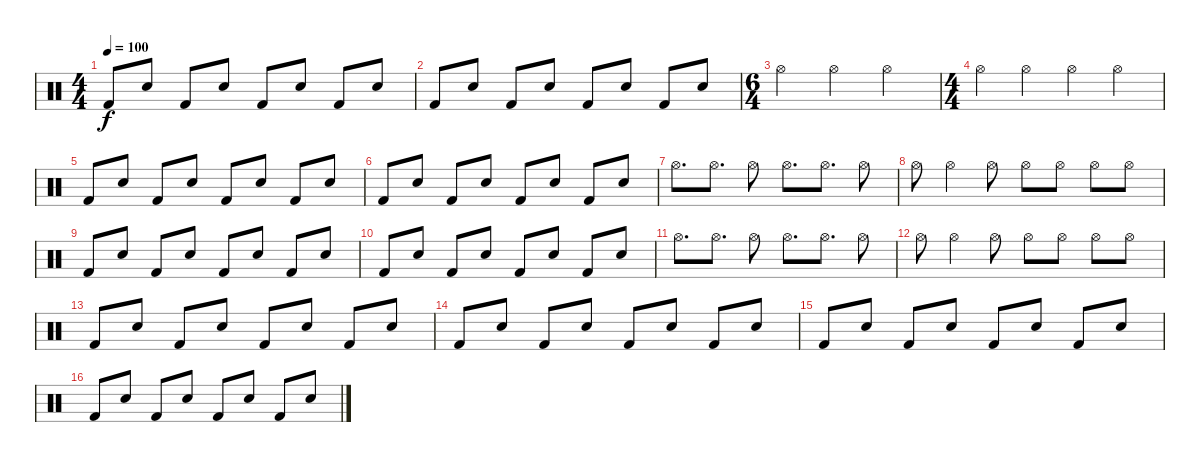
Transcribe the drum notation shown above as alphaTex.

\track "" {instrument percussion}
\staff {score}
\articulation defaults
\ts (4 4)
\tempo 100
\clef neutral
\ks c "Kick (hit) 2".8{dy f} "Electric Snare (hit)".8 "Kick (hit) 2".8 "Electric Snare (hit)".8 "Kick (hit) 2".8 "Electric Snare (hit)".8 "Kick (hit) 2".8 "Electric Snare (hit)".8
|
"Kick (hit) 2".8 "Electric Snare (hit)".8 "Kick (hit) 2".8 "Electric Snare (hit)".8 "Kick (hit) 2".8 "Electric Snare (hit)".8 "Kick (hit) 2".8 "Electric Snare (hit)".8 |
\ts (6 4)
"Hi-Hat (open)".2 "Hi-Hat (open)".2 "Hi-Hat (open)".2 |
\ts (4 4)
"Hi-Hat (open)".4 "Hi-Hat (open)".4 "Hi-Hat (open)".4 "Hi-Hat (open)".4 |
"Kick (hit) 2".8 "Electric Snare (hit)".8 "Kick (hit) 2".8 "Electric Snare (hit)".8 "Kick (hit) 2".8 "Electric Snare (hit)".8 "Kick (hit) 2".8 "Electric Snare (hit)".8 |
"Kick (hit) 2".8 "Electric Snare (hit)".8 "Kick (hit) 2".8 "Electric Snare (hit)".8 "Kick (hit) 2".8 "Electric Snare (hit)".8 "Kick (hit) 2".8 "Electric Snare (hit)".8 |
"Hi-Hat (open)".8{d} "Hi-Hat (open)".8{d} "Hi-Hat (open)".8 "Hi-Hat (open)".8{d} "Hi-Hat (open)".8{d} "Hi-Hat (open)".8 |
"Hi-Hat (open)".8 "Hi-Hat (open)".4 "Hi-Hat (open)".8 "Hi-Hat (open)".8 "Hi-Hat (open)".8 "Hi-Hat (open)".8 "Hi-Hat (open)".8 |
"Kick (hit) 2".8 "Electric Snare (hit)".8 "Kick (hit) 2".8 "Electric Snare (hit)".8 "Kick (hit) 2".8 "Electric Snare (hit)".8 "Kick (hit) 2".8 "Electric Snare (hit)".8 |
"Kick (hit) 2".8 "Electric Snare (hit)".8 "Kick (hit) 2".8 "Electric Snare (hit)".8 "Kick (hit) 2".8 "Electric Snare (hit)".8 "Kick (hit) 2".8 "Electric Snare (hit)".8 |
"Hi-Hat (open)".8{d} "Hi-Hat (open)".8{d} "Hi-Hat (open)".8 "Hi-Hat (open)".8{d} "Hi-Hat (open)".8{d} "Hi-Hat (open)".8 |
"Hi-Hat (open)".8 "Hi-Hat (open)".4 "Hi-Hat (open)".8 "Hi-Hat (open)".8 "Hi-Hat (open)".8 "Hi-Hat (open)".8 "Hi-Hat (open)".8 |
"Kick (hit) 2".8 "Electric Snare (hit)".8 "Kick (hit) 2".8 "Electric Snare (hit)".8 "Kick (hit) 2".8 "Electric Snare (hit)".8 "Kick (hit) 2".8 "Electric Snare (hit)".8 |
"Kick (hit) 2".8 "Electric Snare (hit)".8 "Kick (hit) 2".8 "Electric Snare (hit)".8 "Kick (hit) 2".8 "Electric Snare (hit)".8 "Kick (hit) 2".8 "Electric Snare (hit)".8 |
"Kick (hit) 2".8 "Electric Snare (hit)".8 "Kick (hit) 2".8 "Electric Snare (hit)".8 "Kick (hit) 2".8 "Electric Snare (hit)".8 "Kick (hit) 2".8 "Electric Snare (hit)".8 |
"Kick (hit) 2".8 "Electric Snare (hit)".8 "Kick (hit) 2".8 "Electric Snare (hit)".8 "Kick (hit) 2".8 "Electric Snare (hit)".8 "Kick (hit) 2".8 "Electric Snare (hit)".8
